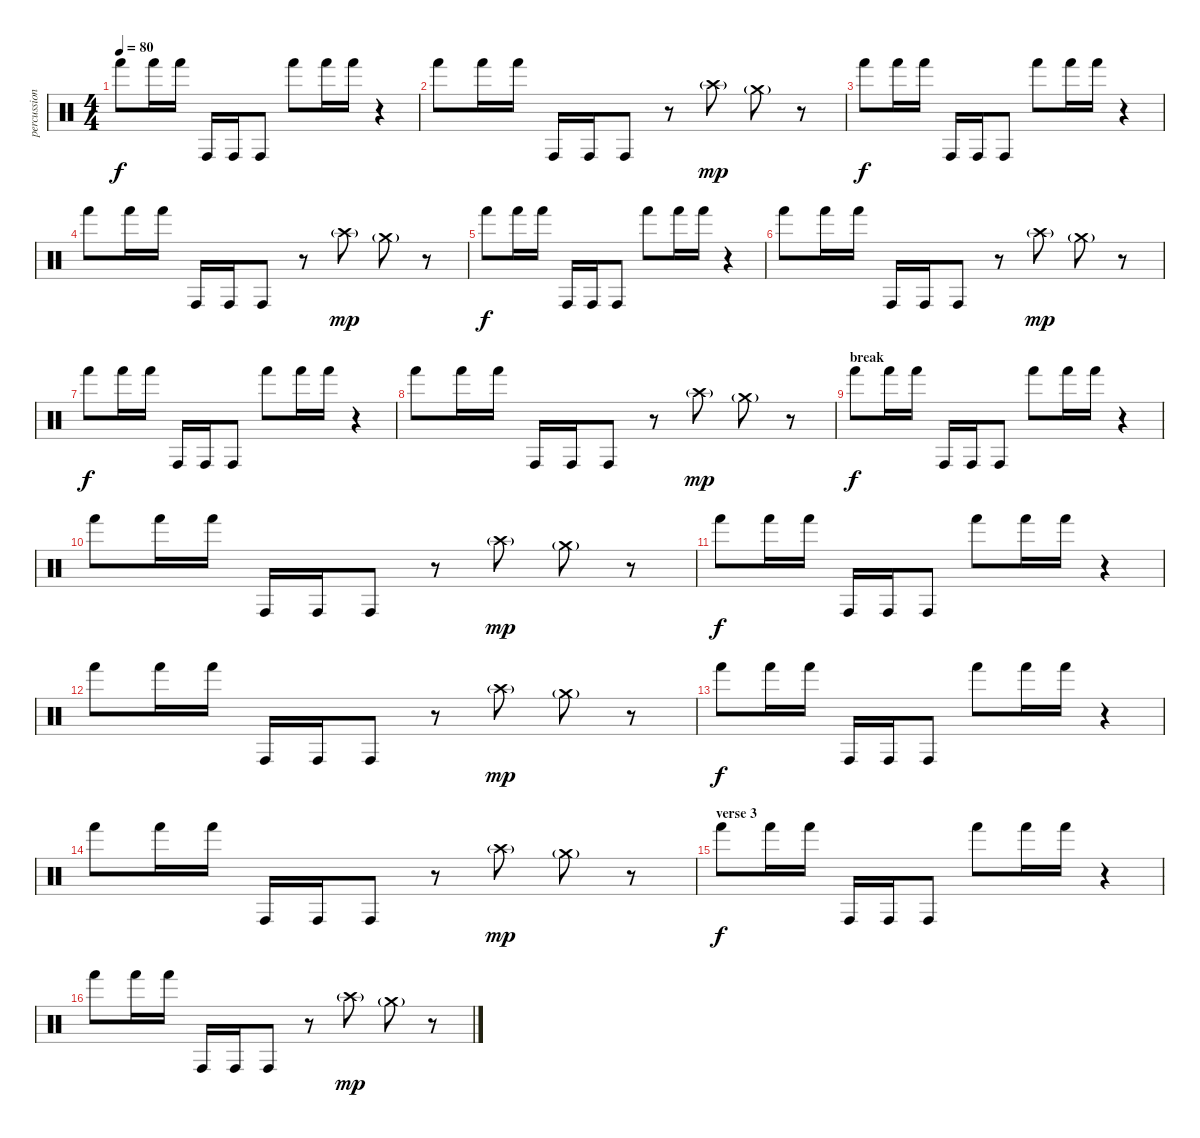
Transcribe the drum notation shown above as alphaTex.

\track ("percussion" "percussion") {instrument percussion}
\staff {score}
\articulation defaults
\ts (4 4)
\tempo 80
\clef neutral
\ks c "Hand (hit)".8{dy f} "Hand (hit)".16 "Hand (hit)".16 "Conga high (hit)".16 "Conga high (hit)".16 "Conga high (hit)".8 "Hand (hit)".8 "Hand (hit)".16 "Hand (hit)".16
r.4 |
"Hand (hit)".8 "Hand (hit)".16 "Hand (hit)".16 "Conga high (hit)".16 "Conga high (hit)".16 "Conga high (hit)".8 r.8 "Crash high (hit)"{g}.8{dy mp} "Crash medium (hit)"{g}.8 r.8 |
"Hand (hit)".8{dy f} "Hand (hit)".16 "Hand (hit)".16 "Conga high (hit)".16 "Conga high (hit)".16 "Conga high (hit)".8 "Hand (hit)".8 "Hand (hit)".16 "Hand (hit)".16 r.4 |
"Hand (hit)".8 "Hand (hit)".16 "Hand (hit)".16 "Conga high (hit)".16 "Conga high (hit)".16 "Conga high (hit)".8 r.8 "Crash high (hit)"{g}.8{dy mp} "Crash medium (hit)"{g}.8 r.8 |
"Hand (hit)".8{dy f} "Hand (hit)".16 "Hand (hit)".16 "Conga high (hit)".16 "Conga high (hit)".16 "Conga high (hit)".8 "Hand (hit)".8 "Hand (hit)".16 "Hand (hit)".16 r.4 |
"Hand (hit)".8 "Hand (hit)".16 "Hand (hit)".16 "Conga high (hit)".16 "Conga high (hit)".16 "Conga high (hit)".8 r.8 "Crash high (hit)"{g}.8{dy mp} "Crash medium (hit)"{g}.8 r.8 |
"Hand (hit)".8{dy f} "Hand (hit)".16 "Hand (hit)".16 "Conga high (hit)".16 "Conga high (hit)".16 "Conga high (hit)".8 "Hand (hit)".8 "Hand (hit)".16 "Hand (hit)".16 r.4 |
"Hand (hit)".8 "Hand (hit)".16 "Hand (hit)".16 "Conga high (hit)".16 "Conga high (hit)".16 "Conga high (hit)".8 r.8 "Crash high (hit)"{g}.8{dy mp} "Crash medium (hit)"{g}.8 r.8 |
\section ("" "break")
"Hand (hit)".8{dy f} "Hand (hit)".16 "Hand (hit)".16 "Conga high (hit)".16 "Conga high (hit)".16 "Conga high (hit)".8 "Hand (hit)".8 "Hand (hit)".16 "Hand (hit)".16 r.4 |
"Hand (hit)".8 "Hand (hit)".16 "Hand (hit)".16 "Conga high (hit)".16 "Conga high (hit)".16 "Conga high (hit)".8 r.8 "Crash high (hit)"{g}.8{dy mp} "Crash medium (hit)"{g}.8 r.8 |
"Hand (hit)".8{dy f} "Hand (hit)".16 "Hand (hit)".16 "Conga high (hit)".16 "Conga high (hit)".16 "Conga high (hit)".8 "Hand (hit)".8 "Hand (hit)".16 "Hand (hit)".16 r.4 |
"Hand (hit)".8 "Hand (hit)".16 "Hand (hit)".16 "Conga high (hit)".16 "Conga high (hit)".16 "Conga high (hit)".8 r.8 "Crash high (hit)"{g}.8{dy mp} "Crash medium (hit)"{g}.8 r.8 |
"Hand (hit)".8{dy f} "Hand (hit)".16 "Hand (hit)".16 "Conga high (hit)".16 "Conga high (hit)".16 "Conga high (hit)".8 "Hand (hit)".8 "Hand (hit)".16 "Hand (hit)".16 r.4 |
"Hand (hit)".8 "Hand (hit)".16 "Hand (hit)".16 "Conga high (hit)".16 "Conga high (hit)".16 "Conga high (hit)".8 r.8 "Crash high (hit)"{g}.8{dy mp} "Crash medium (hit)"{g}.8 r.8 |
\section ("" "verse 3")
"Hand (hit)".8{dy f} "Hand (hit)".16 "Hand (hit)".16 "Conga high (hit)".16 "Conga high (hit)".16 "Conga high (hit)".8 "Hand (hit)".8 "Hand (hit)".16 "Hand (hit)".16 r.4 |
"Hand (hit)".8 "Hand (hit)".16 "Hand (hit)".16 "Conga high (hit)".16 "Conga high (hit)".16 "Conga high (hit)".8 r.8 "Crash high (hit)"{g}.8{dy mp} "Crash medium (hit)"{g}.8 r.8
